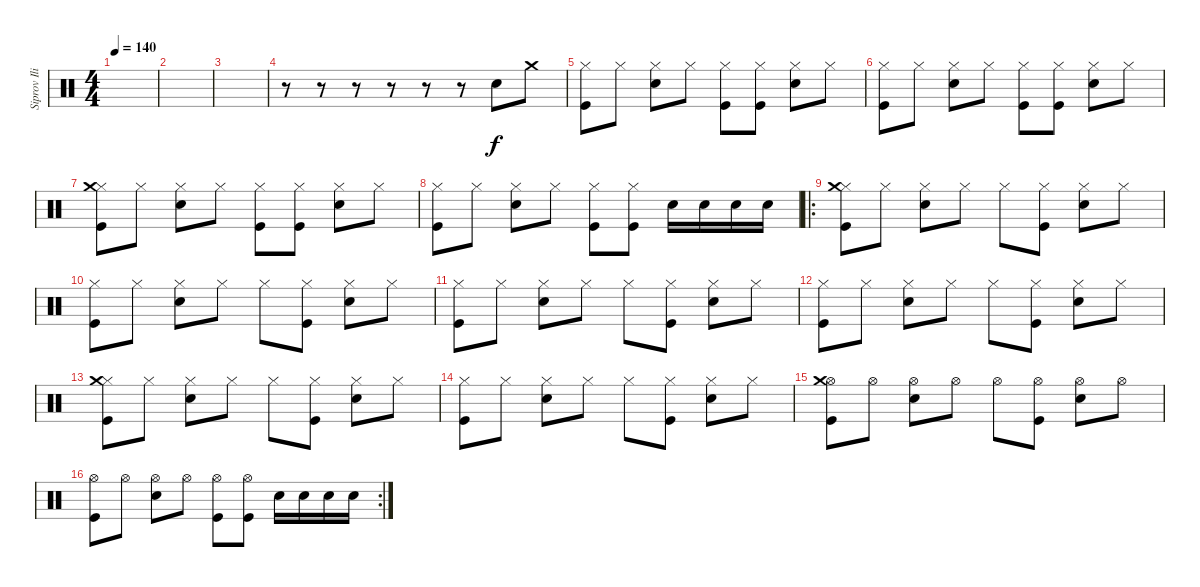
\track ("Siprov Iliya (DRUMS)" "Siprov Ili") {instrument percussion}
\staff {score}
\articulation defaults
\ts (4 4)
\tempo 140
\clef neutral
\ks c
|
|
|
r.8 r.8 r.8 r.8 r.8 r.8 "Electric Snare (hit)".8 "Crash medium (hit)".8 |
("Hi-Hat (closed)" "Kick (hit)").8 "Hi-Hat (closed)".8 ("Hi-Hat (closed)" "Electric Snare (hit)").8 "Hi-Hat (closed)".8 ("Hi-Hat (closed)" "Kick (hit)").8 ("Hi-Hat (closed)" "Kick (hit)").8 ("Hi-Hat (closed)" "Electric Snare (hit)").8 "Hi-Hat (closed)".8 |
("Hi-Hat (closed)" "Kick (hit)").8 "Hi-Hat (closed)".8 ("Hi-Hat (closed)" "Electric Snare (hit)").8 "Hi-Hat (closed)".8 ("Hi-Hat (closed)" "Kick (hit)").8 ("Hi-Hat (closed)" "Kick (hit)").8 ("Hi-Hat (closed)" "Electric Snare (hit)").8 "Hi-Hat (closed)".8 |
("Hi-Hat (closed)" "Crash medium (hit)" "Kick (hit)").8 "Hi-Hat (closed)".8 ("Hi-Hat (closed)" "Electric Snare (hit)").8 "Hi-Hat (closed)".8 ("Hi-Hat (closed)" "Kick (hit)").8 ("Hi-Hat (closed)" "Kick (hit)").8 ("Hi-Hat (closed)" "Electric Snare (hit)").8 "Hi-Hat (closed)".8 |
("Hi-Hat (closed)" "Kick (hit)").8 "Hi-Hat (closed)".8 ("Hi-Hat (closed)" "Electric Snare (hit)").8 "Hi-Hat (closed)".8 ("Hi-Hat (closed)" "Kick (hit)").8 ("Hi-Hat (closed)" "Kick (hit)").8 "Electric Snare (hit)".16 "Electric Snare (hit)".16 "Electric Snare (hit)".16 "Electric Snare (hit)".16 |
\ro
("Hi-Hat (closed)" "Crash medium (hit)" "Kick (hit)").8 "Hi-Hat (closed)".8 ("Hi-Hat (closed)" "Electric Snare (hit)").8 "Hi-Hat (closed)".8 "Hi-Hat (closed)".8 ("Hi-Hat (closed)" "Kick (hit)").8 ("Hi-Hat (closed)" "Electric Snare (hit)").8 "Hi-Hat (closed)".8 |
("Hi-Hat (closed)" "Kick (hit)").8 "Hi-Hat (closed)".8 ("Hi-Hat (closed)" "Electric Snare (hit)").8 "Hi-Hat (closed)".8 "Hi-Hat (closed)".8 ("Hi-Hat (closed)" "Kick (hit)").8 ("Hi-Hat (closed)" "Electric Snare (hit)").8 "Hi-Hat (closed)".8 |
("Hi-Hat (closed)" "Kick (hit)").8 "Hi-Hat (closed)".8 ("Hi-Hat (closed)" "Electric Snare (hit)").8 "Hi-Hat (closed)".8 "Hi-Hat (closed)".8 ("Hi-Hat (closed)" "Kick (hit)").8 ("Hi-Hat (closed)" "Electric Snare (hit)").8 "Hi-Hat (closed)".8 |
("Hi-Hat (closed)" "Kick (hit)").8 "Hi-Hat (closed)".8 ("Hi-Hat (closed)" "Electric Snare (hit)").8 "Hi-Hat (closed)".8 "Hi-Hat (closed)".8 ("Hi-Hat (closed)" "Kick (hit)").8 ("Hi-Hat (closed)" "Electric Snare (hit)").8 "Hi-Hat (closed)".8 |
("Hi-Hat (closed)" "Crash medium (hit)" "Kick (hit)").8 "Hi-Hat (closed)".8 ("Hi-Hat (closed)" "Electric Snare (hit)").8 "Hi-Hat (closed)".8 "Hi-Hat (closed)".8 ("Hi-Hat (closed)" "Kick (hit)").8 ("Hi-Hat (closed)" "Electric Snare (hit)").8 "Hi-Hat (closed)".8 |
("Hi-Hat (closed)" "Kick (hit)").8 "Hi-Hat (closed)".8 ("Hi-Hat (closed)" "Electric Snare (hit)").8 "Hi-Hat (closed)".8 "Hi-Hat (closed)".8 ("Hi-Hat (closed)" "Kick (hit)").8 ("Hi-Hat (closed)" "Electric Snare (hit)").8 "Hi-Hat (closed)".8 |
("Hi-Hat (open)" "Crash medium (hit)" "Kick (hit)").8 "Hi-Hat (open)".8 ("Hi-Hat (open)" "Electric Snare (hit)").8 "Hi-Hat (open)".8 "Hi-Hat (open)".8 ("Hi-Hat (open)" "Kick (hit)").8 ("Hi-Hat (open)" "Electric Snare (hit)").8 "Hi-Hat (open)".8 |
\rc 2
("Hi-Hat (open)" "Kick (hit)").8 "Hi-Hat (open)".8 ("Hi-Hat (open)" "Electric Snare (hit)").8 "Hi-Hat (open)".8 ("Hi-Hat (open)" "Kick (hit)").8 ("Hi-Hat (open)" "Kick (hit)").8 "Electric Snare (hit)".16 "Electric Snare (hit)".16 "Electric Snare (hit)".16 "Electric Snare (hit)".16
